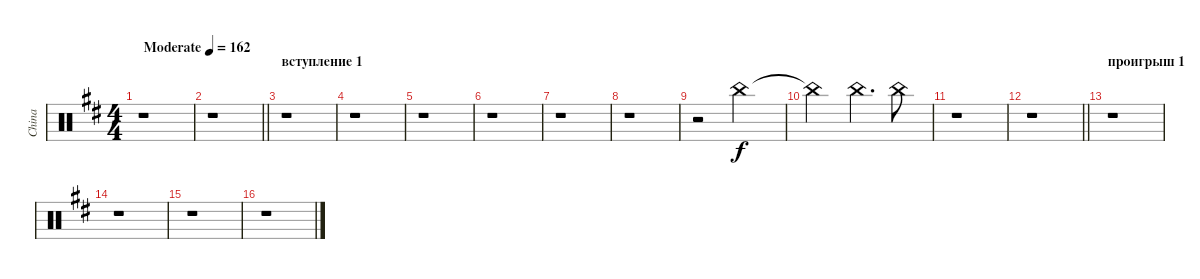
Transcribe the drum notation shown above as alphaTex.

\track ("China" "China") {instrument percussion}
\staff {score}
\articulation defaults
\ts (4 4)
\tempo (162 "Moderate")
\clef neutral
\ks bminor
r.1{dy f} |
\barLineRight lightlight
r.1 |
\section ("" "вступление 1")
r.1 |
r.1 |
r.1 |
r.1 |
r.1 |
r.1 |
r.2 "China (hit)".2 |
"China (hit)"{t}.2 "China (hit)".4{d} "China (hit)".8 |
r.1 |
\barLineRight lightlight
r.1 |
\section ("" "проигрыш 1")
r.1 |
r.1 |
r.1 |
r.1
